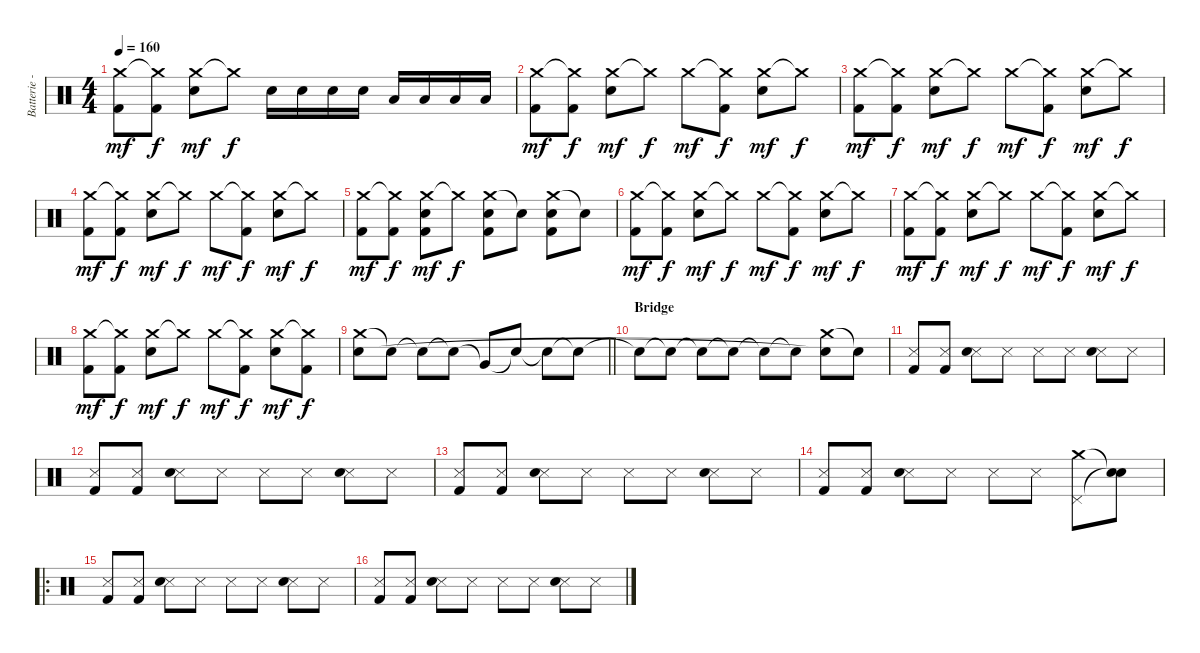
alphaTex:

\track ("Batterie - Mikko" "Batterie -") {instrument percussion}
\staff {score}
\articulation defaults
\ts (4 4)
\tempo 160
\clef neutral
\ks c
("Crash medium (hit)" "Kick (hit) 2").8{dy mf} ("Crash medium (hit)"{t} "Kick (hit) 2").8{dy f} ("Crash medium (hit)" "Snare (hit) 2").8{dy mf} "Crash medium (hit)"{t}.8{dy f} "Snare (hit) 2".16 "Snare (hit) 2".16 "Snare (hit) 2".16 "Snare (hit) 2".16 "Low Tom (hit)".16 "Low Tom (hit)".16 "Low Tom (hit)".16 "Low Tom (hit)".16 |
("Crash medium (hit)" "Kick (hit) 2").8{dy mf} ("Crash medium (hit)"{t} "Kick (hit) 2").8{dy f} ("Crash medium (hit)" "Snare (hit) 2").8{dy mf} "Crash medium (hit)"{t}.8{dy f} "Crash medium (hit)".8{dy mf} ("Crash medium (hit)"{t} "Kick (hit) 2").8{dy f} ("Crash medium (hit)" "Snare (hit) 2").8{dy mf} "Crash medium (hit)"{t}.8{dy f} |
("Crash medium (hit)" "Kick (hit) 2").8{dy mf} ("Crash medium (hit)"{t} "Kick (hit) 2").8{dy f} ("Crash medium (hit)" "Snare (hit) 2").8{dy mf} "Crash medium (hit)"{t}.8{dy f} "Crash medium (hit)".8{dy mf} ("Crash medium (hit)"{t} "Kick (hit) 2").8{dy f} ("Crash medium (hit)" "Snare (hit) 2").8{dy mf} "Crash medium (hit)"{t}.8{dy f} |
("Crash medium (hit)" "Kick (hit) 2").8{dy mf} ("Crash medium (hit)"{t} "Kick (hit) 2").8{dy f} ("Crash medium (hit)" "Snare (hit) 2").8{dy mf} "Crash medium (hit)"{t}.8{dy f} "Crash medium (hit)".8{dy mf} ("Crash medium (hit)"{t} "Kick (hit) 2").8{dy f} ("Crash medium (hit)" "Snare (hit) 2").8{dy mf} "Crash medium (hit)"{t}.8{dy f} |
("Crash medium (hit)" "Kick (hit) 2").8{dy mf} ("Crash medium (hit)"{t} "Kick (hit) 2").8{dy f} ("Crash medium (hit)" "Snare (hit) 2" "Kick (hit) 2").8{dy mf} "Crash medium (hit)"{t}.8{dy f} ("Crash medium (hit)" "Snare (hit) 2" "Kick (hit) 2").8 "Snare (hit)"{t}.8 ("Crash medium (hit)" "Snare (hit) 2" "Kick (hit) 2").8 "Snare (hit)"{t}.8 |
("Crash medium (hit)" "Kick (hit) 2").8{dy mf} ("Crash medium (hit)"{t} "Kick (hit) 2").8{dy f} ("Crash medium (hit)" "Snare (hit) 2").8{dy mf} "Crash medium (hit)"{t}.8{dy f} "Crash medium (hit)".8{dy mf} ("Crash medium (hit)"{t} "Kick (hit) 2").8{dy f} ("Crash medium (hit)" "Snare (hit) 2").8{dy mf} "Crash medium (hit)"{t}.8{dy f} |
("Crash medium (hit)" "Kick (hit) 2").8{dy mf} ("Crash medium (hit)"{t} "Kick (hit) 2").8{dy f} ("Crash medium (hit)" "Snare (hit) 2").8{dy mf} "Crash medium (hit)"{t}.8{dy f} "Crash medium (hit)".8{dy mf} ("Crash medium (hit)"{t} "Kick (hit) 2").8{dy f} ("Crash medium (hit)" "Snare (hit) 2").8{dy mf} "Crash medium (hit)"{t}.8{dy f} |
("Crash medium (hit)" "Kick (hit) 2").8{dy mf} ("Crash medium (hit)"{t} "Kick (hit) 2").8{dy f} ("Crash medium (hit)" "Snare (hit) 2").8{dy mf} "Crash medium (hit)"{t}.8{dy f} "Crash medium (hit)".8{dy mf} ("Crash medium (hit)"{t} "Kick (hit) 2").8{dy f} ("Crash medium (hit)" "Snare (hit) 2").8{dy mf} ("Crash medium (hit)"{t} "Kick (hit) 2").8{dy f} |
\barLineRight lightlight
("Crash medium (hit)" "Snare (hit) 2").8 "Snare (hit)"{t}.8 "Snare (hit)"{t}.8 "Snare (hit)"{t}.8 "Very Low Tom (hit)"{t}.8 "Snare (hit)"{t}.8 "Snare (hit)"{t}.8 "Snare (hit)"{t}.8 |
\section ("" "Bridge")
"Snare (hit)"{t}.8 "Snare (hit)"{t}.8 "Snare (hit)"{t}.8 "Snare (hit)"{t}.8 "Snare (hit)"{t}.8 "Snare (hit)"{t}.8 ("Crash medium (hit)" "Snare (hit)"{t}).8 "Snare (hit)"{t}.8 |
("Snare (side stick) 3" "Kick (hit) 2").8 ("Snare (side stick) 3" "Kick (hit) 2").8 ("Snare (side stick) 3" "Snare (hit) 2").8 "Snare (side stick) 3".8 "Snare (side stick) 3".8 "Snare (side stick) 3".8 ("Snare (side stick) 3" "Snare (hit) 2").8 "Snare (side stick) 3".8 |
("Snare (side stick) 3" "Kick (hit) 2").8 ("Snare (side stick) 3" "Kick (hit) 2").8 ("Snare (side stick) 3" "Snare (hit) 2").8 "Snare (side stick) 3".8 "Snare (side stick) 3".8 "Snare (side stick) 3".8 ("Snare (side stick) 3" "Snare (hit) 2").8 "Snare (side stick) 3".8 |
("Snare (side stick) 3" "Kick (hit) 2").8 ("Snare (side stick) 3" "Kick (hit) 2").8 ("Snare (side stick) 3" "Snare (hit) 2").8 "Snare (side stick) 3".8 "Snare (side stick) 3".8 "Snare (side stick) 3".8 ("Snare (side stick) 3" "Snare (hit) 2").8 "Snare (side stick) 3".8 |
("Snare (side stick) 3" "Kick (hit) 2").8 ("Snare (side stick) 3" "Kick (hit) 2").8 ("Snare (side stick) 3" "Snare (hit) 2").8 "Snare (side stick) 3".8 "Snare (side stick) 3".8 "Snare (side stick) 3".8 ("Crash medium (hit)" "Pedal Hi-Hat (hit)").8 ("Snare (hit)"{t} "Snare (hit)"{t}).8 |
\ro
("Snare (side stick) 3" "Kick (hit) 2").8 ("Snare (side stick) 3" "Kick (hit) 2").8 ("Snare (side stick) 3" "Snare (hit) 2").8 "Snare (side stick) 3".8 "Snare (side stick) 3".8 "Snare (side stick) 3".8 ("Snare (side stick) 3" "Snare (hit) 2").8 "Snare (side stick) 3".8 |
("Snare (side stick) 3" "Kick (hit) 2").8 ("Snare (side stick) 3" "Kick (hit) 2").8 ("Snare (side stick) 3" "Snare (hit) 2").8 "Snare (side stick) 3".8 "Snare (side stick) 3".8 "Snare (side stick) 3".8 ("Snare (side stick) 3" "Snare (hit) 2").8 "Snare (side stick) 3".8
